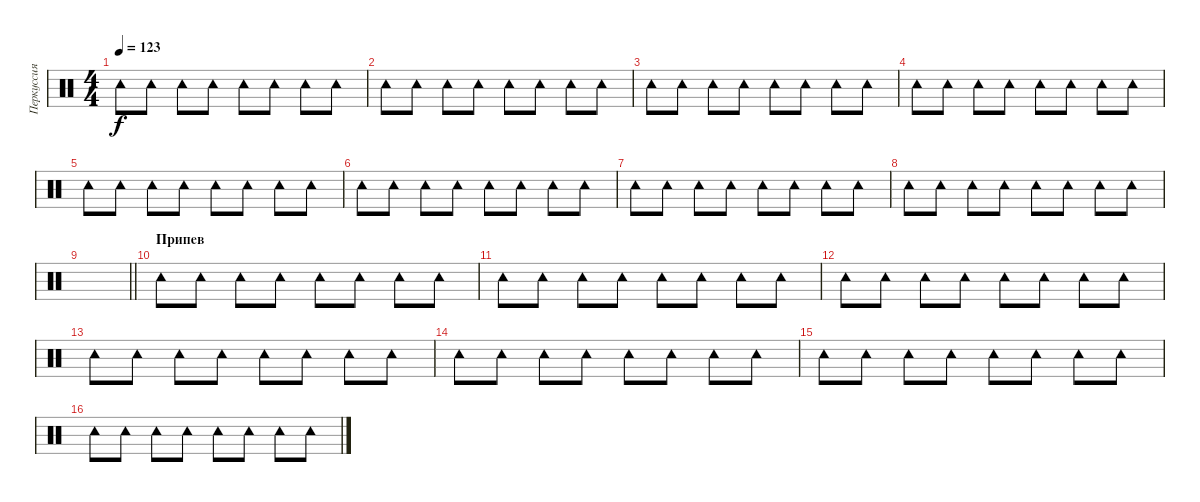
\track ("Перкуссия 1" "Перкуссия ") {instrument percussion}
\staff {score}
\articulation defaults
\ts (4 4)
\tempo 123
\clef neutral
\ks c "Tambourine (hit)".8{dy f} "Tambourine (hit)".8 "Tambourine (hit)".8 "Tambourine (hit)".8 "Tambourine (hit)".8 "Tambourine (hit)".8 "Tambourine (hit)".8 "Tambourine (hit)".8
|
"Tambourine (hit)".8 "Tambourine (hit)".8 "Tambourine (hit)".8 "Tambourine (hit)".8 "Tambourine (hit)".8 "Tambourine (hit)".8 "Tambourine (hit)".8 "Tambourine (hit)".8 |
"Tambourine (hit)".8 "Tambourine (hit)".8 "Tambourine (hit)".8 "Tambourine (hit)".8 "Tambourine (hit)".8 "Tambourine (hit)".8 "Tambourine (hit)".8 "Tambourine (hit)".8 |
"Tambourine (hit)".8 "Tambourine (hit)".8 "Tambourine (hit)".8 "Tambourine (hit)".8 "Tambourine (hit)".8 "Tambourine (hit)".8 "Tambourine (hit)".8 "Tambourine (hit)".8 |
"Tambourine (hit)".8 "Tambourine (hit)".8 "Tambourine (hit)".8 "Tambourine (hit)".8 "Tambourine (hit)".8 "Tambourine (hit)".8 "Tambourine (hit)".8 "Tambourine (hit)".8 |
"Tambourine (hit)".8 "Tambourine (hit)".8 "Tambourine (hit)".8 "Tambourine (hit)".8 "Tambourine (hit)".8 "Tambourine (hit)".8 "Tambourine (hit)".8 "Tambourine (hit)".8 |
"Tambourine (hit)".8 "Tambourine (hit)".8 "Tambourine (hit)".8 "Tambourine (hit)".8 "Tambourine (hit)".8 "Tambourine (hit)".8 "Tambourine (hit)".8 "Tambourine (hit)".8 |
"Tambourine (hit)".8 "Tambourine (hit)".8 "Tambourine (hit)".8 "Tambourine (hit)".8 "Tambourine (hit)".8 "Tambourine (hit)".8 "Tambourine (hit)".8 "Tambourine (hit)".8 |
\barLineRight lightlight
|
\section ("" "Припев")
"Tambourine (hit)".8 "Tambourine (hit)".8 "Tambourine (hit)".8 "Tambourine (hit)".8 "Tambourine (hit)".8 "Tambourine (hit)".8 "Tambourine (hit)".8 "Tambourine (hit)".8 |
"Tambourine (hit)".8 "Tambourine (hit)".8 "Tambourine (hit)".8 "Tambourine (hit)".8 "Tambourine (hit)".8 "Tambourine (hit)".8 "Tambourine (hit)".8 "Tambourine (hit)".8 |
"Tambourine (hit)".8 "Tambourine (hit)".8 "Tambourine (hit)".8 "Tambourine (hit)".8 "Tambourine (hit)".8 "Tambourine (hit)".8 "Tambourine (hit)".8 "Tambourine (hit)".8 |
"Tambourine (hit)".8 "Tambourine (hit)".8 "Tambourine (hit)".8 "Tambourine (hit)".8 "Tambourine (hit)".8 "Tambourine (hit)".8 "Tambourine (hit)".8 "Tambourine (hit)".8 |
"Tambourine (hit)".8 "Tambourine (hit)".8 "Tambourine (hit)".8 "Tambourine (hit)".8 "Tambourine (hit)".8 "Tambourine (hit)".8 "Tambourine (hit)".8 "Tambourine (hit)".8 |
"Tambourine (hit)".8 "Tambourine (hit)".8 "Tambourine (hit)".8 "Tambourine (hit)".8 "Tambourine (hit)".8 "Tambourine (hit)".8 "Tambourine (hit)".8 "Tambourine (hit)".8 |
"Tambourine (hit)".8 "Tambourine (hit)".8 "Tambourine (hit)".8 "Tambourine (hit)".8 "Tambourine (hit)".8 "Tambourine (hit)".8 "Tambourine (hit)".8 "Tambourine (hit)".8
